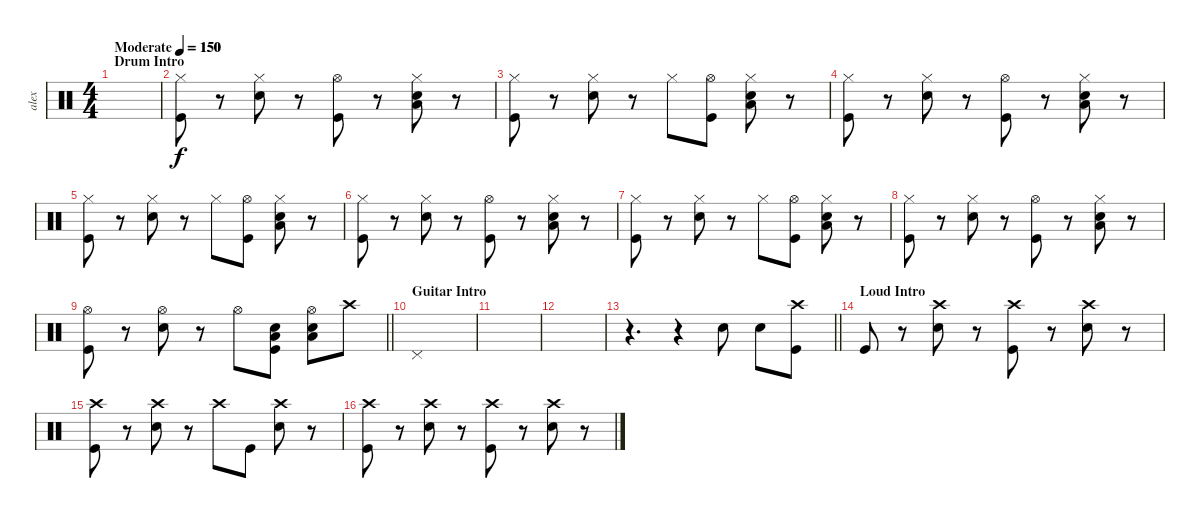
\track ("alex" "alex") {instrument percussion}
\staff {score}
\articulation defaults
\ts (4 4)
\section ("" "Drum Intro")
\tempo (150 "Moderate")
\tempo 300
\tempo (150 "Moderate")
\clef neutral
\ks c
|
\tempo 150
("Hi-Hat (closed)" "Kick (hit)").8 r.8 ("Hi-Hat (closed)" "Snare (hit) 2").8 r.8 ("Hi-Hat (open)" "Kick (hit)").8 r.8 ("Hi-Hat (closed)" "Low Floor Tom (hit)" "Snare (hit) 2").8 r.8 |
("Hi-Hat (closed)" "Kick (hit)").8 r.8 ("Hi-Hat (closed)" "Snare (hit) 2").8 r.8 "Hi-Hat (closed)".8 ("Hi-Hat (open)" "Kick (hit)").8 ("Hi-Hat (closed)" "Snare (hit) 2" "Low Floor Tom (hit)").8 r.8 |
("Hi-Hat (closed)" "Kick (hit)").8 r.8 ("Hi-Hat (closed)" "Snare (hit) 2").8 r.8 ("Hi-Hat (open)" "Kick (hit)").8 r.8 ("Hi-Hat (closed)" "Low Floor Tom (hit)" "Snare (hit) 2").8 r.8 |
("Hi-Hat (closed)" "Kick (hit)").8 r.8 ("Hi-Hat (closed)" "Snare (hit) 2").8 r.8 "Hi-Hat (closed)".8 ("Hi-Hat (open)" "Kick (hit)").8 ("Hi-Hat (closed)" "Snare (hit) 2" "Low Floor Tom (hit)").8 r.8 |
("Hi-Hat (closed)" "Kick (hit)").8 r.8 ("Hi-Hat (closed)" "Snare (hit) 2").8 r.8 ("Hi-Hat (open)" "Kick (hit)").8 r.8 ("Hi-Hat (closed)" "Low Floor Tom (hit)" "Snare (hit) 2").8 r.8 |
("Hi-Hat (closed)" "Kick (hit)").8 r.8 ("Hi-Hat (closed)" "Snare (hit) 2").8 r.8 "Hi-Hat (closed)".8 ("Hi-Hat (open)" "Kick (hit)").8 ("Hi-Hat (closed)" "Snare (hit) 2" "Low Floor Tom (hit)").8 r.8 |
("Hi-Hat (closed)" "Kick (hit)").8 r.8 ("Hi-Hat (closed)" "Snare (hit) 2").8 r.8 ("Hi-Hat (open)" "Kick (hit)").8 r.8 ("Hi-Hat (closed)" "Low Floor Tom (hit)" "Snare (hit) 2").8 r.8 |
\barLineRight lightlight
("Hi-Hat (open)" "Kick (hit)").8 r.8 ("Hi-Hat (open)" "Snare (hit) 2").8 r.8 "Hi-Hat (open)".8 ("Snare (hit) 2" "Low Floor Tom (hit)" "Kick (hit)").8 ("Hi-Hat (open)" "Snare (hit) 2" "Low Floor Tom (hit)").8 "Crash high (hit)".8 |
\section ("" "Guitar Intro")
"Pedal Hi-Hat (hit)".1 |
|
|
\barLineRight lightlight
r.4{d} r.4 "Snare (hit) 2".8 "Snare (hit) 2".8 ("Crash high (hit)" "Kick (hit)").8 |
\section ("" "Loud Intro")
"Kick (hit)".8 r.8 ("Crash high (hit)" "Snare (hit) 2").8 r.8 ("Crash high (hit)" "Kick (hit)").8 r.8 ("Crash high (hit)" "Snare (hit) 2").8 r.8 |
("Crash high (hit)" "Kick (hit)").8 r.8 ("Crash high (hit)" "Snare (hit) 2").8 r.8 "Crash high (hit)".8 "Kick (hit)".8 ("Crash high (hit)" "Snare (hit) 2").8 r.8 |
("Crash high (hit)" "Kick (hit)").8 r.8 ("Crash high (hit)" "Snare (hit) 2").8 r.8 ("Crash high (hit)" "Kick (hit)").8 r.8 ("Crash high (hit)" "Snare (hit) 2").8 r.8
